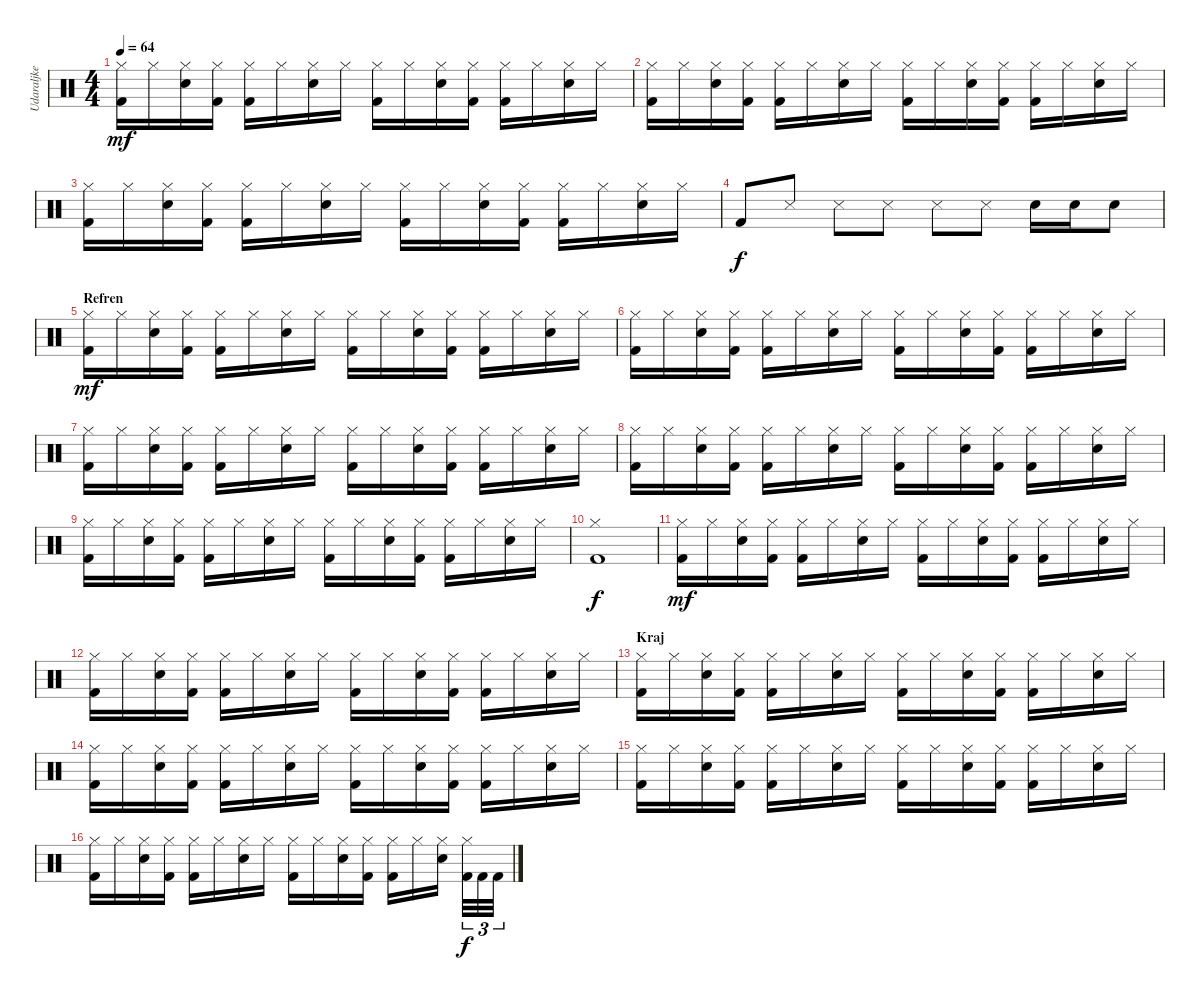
\track ("Udaraljke" "Udaraljke") {instrument percussion}
\staff {score}
\articulation defaults
\ts (4 4)
\tempo 64
\clef neutral
\ks c
("Kick (hit) 2" "Hi-Hat (closed)").16{dy mf} "Hi-Hat (closed)".16 ("Snare (hit) 2" "Hi-Hat (closed)").16 ("Kick (hit) 2" "Hi-Hat (closed)").16 ("Kick (hit) 2" "Hi-Hat (closed)").16 "Hi-Hat (closed)".16 ("Snare (hit) 2" "Hi-Hat (closed)").16 "Hi-Hat (closed)".16 ("Kick (hit) 2" "Hi-Hat (closed)").16 "Hi-Hat (closed)".16 ("Snare (hit) 2" "Hi-Hat (closed)").16 ("Kick (hit) 2" "Hi-Hat (closed)").16 ("Kick (hit) 2" "Hi-Hat (closed)").16 "Hi-Hat (closed)".16 ("Snare (hit) 2" "Hi-Hat (closed)").16 "Hi-Hat (closed)".16 |
("Kick (hit) 2" "Hi-Hat (closed)").16 "Hi-Hat (closed)".16 ("Snare (hit) 2" "Hi-Hat (closed)").16 ("Kick (hit) 2" "Hi-Hat (closed)").16 ("Kick (hit) 2" "Hi-Hat (closed)").16 "Hi-Hat (closed)".16 ("Snare (hit) 2" "Hi-Hat (closed)").16 "Hi-Hat (closed)".16 ("Kick (hit) 2" "Hi-Hat (closed)").16 "Hi-Hat (closed)".16 ("Snare (hit) 2" "Hi-Hat (closed)").16 ("Kick (hit) 2" "Hi-Hat (closed)").16 ("Kick (hit) 2" "Hi-Hat (closed)").16 "Hi-Hat (closed)".16 ("Snare (hit) 2" "Hi-Hat (closed)").16 "Hi-Hat (closed)".16 |
("Kick (hit) 2" "Hi-Hat (closed)").16 "Hi-Hat (closed)".16 ("Snare (hit) 2" "Hi-Hat (closed)").16 ("Kick (hit) 2" "Hi-Hat (closed)").16 ("Kick (hit) 2" "Hi-Hat (closed)").16 "Hi-Hat (closed)".16 ("Snare (hit) 2" "Hi-Hat (closed)").16 "Hi-Hat (closed)".16 ("Kick (hit) 2" "Hi-Hat (closed)").16 "Hi-Hat (closed)".16 ("Snare (hit) 2" "Hi-Hat (closed)").16 ("Kick (hit) 2" "Hi-Hat (closed)").16 ("Kick (hit) 2" "Hi-Hat (closed)").16 "Hi-Hat (closed)".16 ("Snare (hit) 2" "Hi-Hat (closed)").16 "Hi-Hat (closed)".16 |
"Kick (hit) 2".8{dy f} "Snare (side stick) 3".8 "Snare (side stick) 3".8 "Snare (side stick) 3".8 "Snare (side stick) 3".8 "Snare (side stick) 3".8 "Snare (hit) 2".16 "Snare (hit) 2".16 "Snare (hit) 2".8 |
\section ("" "Refren")
("Kick (hit) 2" "Hi-Hat (closed)").16{dy mf} "Hi-Hat (closed)".16 ("Snare (hit) 2" "Hi-Hat (closed)").16 ("Kick (hit) 2" "Hi-Hat (closed)").16 ("Kick (hit) 2" "Hi-Hat (closed)").16 "Hi-Hat (closed)".16 ("Snare (hit) 2" "Hi-Hat (closed)").16 "Hi-Hat (closed)".16 ("Kick (hit) 2" "Hi-Hat (closed)").16 "Hi-Hat (closed)".16 ("Snare (hit) 2" "Hi-Hat (closed)").16 ("Kick (hit) 2" "Hi-Hat (closed)").16 ("Kick (hit) 2" "Hi-Hat (closed)").16 "Hi-Hat (closed)".16 ("Snare (hit) 2" "Hi-Hat (closed)").16 "Hi-Hat (closed)".16 |
("Kick (hit) 2" "Hi-Hat (closed)").16 "Hi-Hat (closed)".16 ("Snare (hit) 2" "Hi-Hat (closed)").16 ("Kick (hit) 2" "Hi-Hat (closed)").16 ("Kick (hit) 2" "Hi-Hat (closed)").16 "Hi-Hat (closed)".16 ("Snare (hit) 2" "Hi-Hat (closed)").16 "Hi-Hat (closed)".16 ("Kick (hit) 2" "Hi-Hat (closed)").16 "Hi-Hat (closed)".16 ("Snare (hit) 2" "Hi-Hat (closed)").16 ("Kick (hit) 2" "Hi-Hat (closed)").16 ("Kick (hit) 2" "Hi-Hat (closed)").16 "Hi-Hat (closed)".16 ("Snare (hit) 2" "Hi-Hat (closed)").16 "Hi-Hat (closed)".16 |
("Kick (hit) 2" "Hi-Hat (closed)").16 "Hi-Hat (closed)".16 ("Snare (hit) 2" "Hi-Hat (closed)").16 ("Kick (hit) 2" "Hi-Hat (closed)").16 ("Kick (hit) 2" "Hi-Hat (closed)").16 "Hi-Hat (closed)".16 ("Snare (hit) 2" "Hi-Hat (closed)").16 "Hi-Hat (closed)".16 ("Kick (hit) 2" "Hi-Hat (closed)").16 "Hi-Hat (closed)".16 ("Snare (hit) 2" "Hi-Hat (closed)").16 ("Kick (hit) 2" "Hi-Hat (closed)").16 ("Kick (hit) 2" "Hi-Hat (closed)").16 "Hi-Hat (closed)".16 ("Snare (hit) 2" "Hi-Hat (closed)").16 "Hi-Hat (closed)".16 |
("Kick (hit) 2" "Hi-Hat (closed)").16 "Hi-Hat (closed)".16 ("Snare (hit) 2" "Hi-Hat (closed)").16 ("Kick (hit) 2" "Hi-Hat (closed)").16 ("Kick (hit) 2" "Hi-Hat (closed)").16 "Hi-Hat (closed)".16 ("Snare (hit) 2" "Hi-Hat (closed)").16 "Hi-Hat (closed)".16 ("Kick (hit) 2" "Hi-Hat (closed)").16 "Hi-Hat (closed)".16 ("Snare (hit) 2" "Hi-Hat (closed)").16 ("Kick (hit) 2" "Hi-Hat (closed)").16 ("Kick (hit) 2" "Hi-Hat (closed)").16 "Hi-Hat (closed)".16 ("Snare (hit) 2" "Hi-Hat (closed)").16 "Hi-Hat (closed)".16 |
("Kick (hit) 2" "Hi-Hat (closed)").16 "Hi-Hat (closed)".16 ("Snare (hit) 2" "Hi-Hat (closed)").16 ("Kick (hit) 2" "Hi-Hat (closed)").16 ("Kick (hit) 2" "Hi-Hat (closed)").16 "Hi-Hat (closed)".16 ("Snare (hit) 2" "Hi-Hat (closed)").16 "Hi-Hat (closed)".16 ("Kick (hit) 2" "Hi-Hat (closed)").16 "Hi-Hat (closed)".16 ("Snare (hit) 2" "Hi-Hat (closed)").16 ("Kick (hit) 2" "Hi-Hat (closed)").16 ("Kick (hit) 2" "Hi-Hat (closed)").16 "Hi-Hat (closed)".16 ("Snare (hit) 2" "Hi-Hat (closed)").16 "Hi-Hat (closed)".16 |
("Kick (hit) 2" "Hi-Hat (closed)").1{dy f} |
("Kick (hit) 2" "Hi-Hat (closed)").16{dy mf} "Hi-Hat (closed)".16 ("Snare (hit) 2" "Hi-Hat (closed)").16 ("Kick (hit) 2" "Hi-Hat (closed)").16 ("Kick (hit) 2" "Hi-Hat (closed)").16 "Hi-Hat (closed)".16 ("Snare (hit) 2" "Hi-Hat (closed)").16 "Hi-Hat (closed)".16 ("Kick (hit) 2" "Hi-Hat (closed)").16 "Hi-Hat (closed)".16 ("Snare (hit) 2" "Hi-Hat (closed)").16 ("Kick (hit) 2" "Hi-Hat (closed)").16 ("Kick (hit) 2" "Hi-Hat (closed)").16 "Hi-Hat (closed)".16 ("Snare (hit) 2" "Hi-Hat (closed)").16 "Hi-Hat (closed)".16 |
("Kick (hit) 2" "Hi-Hat (closed)").16 "Hi-Hat (closed)".16 ("Snare (hit) 2" "Hi-Hat (closed)").16 ("Kick (hit) 2" "Hi-Hat (closed)").16 ("Kick (hit) 2" "Hi-Hat (closed)").16 "Hi-Hat (closed)".16 ("Snare (hit) 2" "Hi-Hat (closed)").16 "Hi-Hat (closed)".16 ("Kick (hit) 2" "Hi-Hat (closed)").16 "Hi-Hat (closed)".16 ("Snare (hit) 2" "Hi-Hat (closed)").16 ("Kick (hit) 2" "Hi-Hat (closed)").16 ("Kick (hit) 2" "Hi-Hat (closed)").16 "Hi-Hat (closed)".16 ("Snare (hit) 2" "Hi-Hat (closed)").16 "Hi-Hat (closed)".16 |
\section ("" "Kraj")
("Kick (hit) 2" "Hi-Hat (closed)").16 "Hi-Hat (closed)".16 ("Snare (hit) 2" "Hi-Hat (closed)").16 ("Kick (hit) 2" "Hi-Hat (closed)").16 ("Kick (hit) 2" "Hi-Hat (closed)").16 "Hi-Hat (closed)".16 ("Snare (hit) 2" "Hi-Hat (closed)").16 "Hi-Hat (closed)".16 ("Kick (hit) 2" "Hi-Hat (closed)").16 "Hi-Hat (closed)".16 ("Snare (hit) 2" "Hi-Hat (closed)").16 ("Kick (hit) 2" "Hi-Hat (closed)").16 ("Kick (hit) 2" "Hi-Hat (closed)").16 "Hi-Hat (closed)".16 ("Snare (hit) 2" "Hi-Hat (closed)").16 "Hi-Hat (closed)".16 |
("Kick (hit) 2" "Hi-Hat (closed)").16 "Hi-Hat (closed)".16 ("Snare (hit) 2" "Hi-Hat (closed)").16 ("Kick (hit) 2" "Hi-Hat (closed)").16 ("Kick (hit) 2" "Hi-Hat (closed)").16 "Hi-Hat (closed)".16 ("Snare (hit) 2" "Hi-Hat (closed)").16 "Hi-Hat (closed)".16 ("Kick (hit) 2" "Hi-Hat (closed)").16 "Hi-Hat (closed)".16 ("Snare (hit) 2" "Hi-Hat (closed)").16 ("Kick (hit) 2" "Hi-Hat (closed)").16 ("Kick (hit) 2" "Hi-Hat (closed)").16 "Hi-Hat (closed)".16 ("Snare (hit) 2" "Hi-Hat (closed)").16 "Hi-Hat (closed)".16 |
("Kick (hit) 2" "Hi-Hat (closed)").16 "Hi-Hat (closed)".16 ("Snare (hit) 2" "Hi-Hat (closed)").16 ("Kick (hit) 2" "Hi-Hat (closed)").16 ("Kick (hit) 2" "Hi-Hat (closed)").16 "Hi-Hat (closed)".16 ("Snare (hit) 2" "Hi-Hat (closed)").16 "Hi-Hat (closed)".16 ("Kick (hit) 2" "Hi-Hat (closed)").16 "Hi-Hat (closed)".16 ("Snare (hit) 2" "Hi-Hat (closed)").16 ("Kick (hit) 2" "Hi-Hat (closed)").16 ("Kick (hit) 2" "Hi-Hat (closed)").16 "Hi-Hat (closed)".16 ("Snare (hit) 2" "Hi-Hat (closed)").16 "Hi-Hat (closed)".16 |
("Kick (hit) 2" "Hi-Hat (closed)").16 "Hi-Hat (closed)".16 ("Snare (hit) 2" "Hi-Hat (closed)").16 ("Kick (hit) 2" "Hi-Hat (closed)").16 ("Kick (hit) 2" "Hi-Hat (closed)").16 "Hi-Hat (closed)".16 ("Snare (hit) 2" "Hi-Hat (closed)").16 "Hi-Hat (closed)".16 ("Kick (hit) 2" "Hi-Hat (closed)").16 "Hi-Hat (closed)".16 ("Snare (hit) 2" "Hi-Hat (closed)").16 ("Kick (hit) 2" "Hi-Hat (closed)").16 ("Kick (hit) 2" "Hi-Hat (closed)").16 "Hi-Hat (closed)".16 ("Snare (hit) 2" "Hi-Hat (closed)").16 ("Hi-Hat (closed)" "Kick (hit) 2").32{tu (3 2) dy f} "Kick (hit) 2".32{tu (3 2)} "Kick (hit) 2".32{tu (3 2)}
